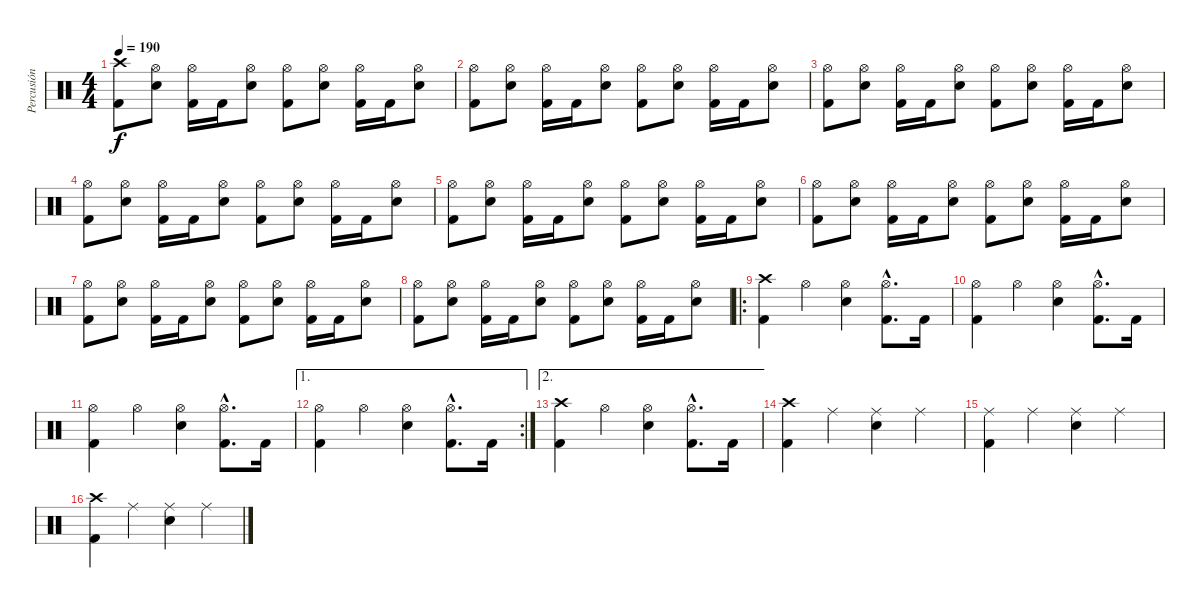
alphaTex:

\track ("Percusión" "Percusión") {instrument percussion}
\staff {score}
\articulation defaults
\ts (4 4)
\tempo 190
\clef neutral
\ks c
("Kick (hit) 2" "Crash high (hit)").8{dy f} ("Snare (hit) 2" "Hi-Hat (open)").8 ("Kick (hit) 2" "Hi-Hat (open)").16 "Kick (hit) 2".16 ("Snare (hit) 2" "Hi-Hat (open)").8 ("Kick (hit) 2" "Hi-Hat (open)").8 ("Snare (hit) 2" "Hi-Hat (open)").8 ("Kick (hit) 2" "Hi-Hat (open)").16 "Kick (hit) 2".16 ("Snare (hit) 2" "Hi-Hat (open)").8 |
("Kick (hit) 2" "Hi-Hat (open)").8 ("Snare (hit) 2" "Hi-Hat (open)").8 ("Kick (hit) 2" "Hi-Hat (open)").16 "Kick (hit) 2".16 ("Snare (hit) 2" "Hi-Hat (open)").8 ("Kick (hit) 2" "Hi-Hat (open)").8 ("Snare (hit) 2" "Hi-Hat (open)").8 ("Kick (hit) 2" "Hi-Hat (open)").16 "Kick (hit) 2".16 ("Snare (hit) 2" "Hi-Hat (open)").8 |
("Kick (hit) 2" "Hi-Hat (open)").8 ("Snare (hit) 2" "Hi-Hat (open)").8 ("Kick (hit) 2" "Hi-Hat (open)").16 "Kick (hit) 2".16 ("Snare (hit) 2" "Hi-Hat (open)").8 ("Kick (hit) 2" "Hi-Hat (open)").8 ("Snare (hit) 2" "Hi-Hat (open)").8 ("Kick (hit) 2" "Hi-Hat (open)").16 "Kick (hit) 2".16 ("Snare (hit) 2" "Hi-Hat (open)").8 |
("Kick (hit) 2" "Hi-Hat (open)").8 ("Snare (hit) 2" "Hi-Hat (open)").8 ("Kick (hit) 2" "Hi-Hat (open)").16 "Kick (hit) 2".16 ("Snare (hit) 2" "Hi-Hat (open)").8 ("Kick (hit) 2" "Hi-Hat (open)").8 ("Snare (hit) 2" "Hi-Hat (open)").8 ("Kick (hit) 2" "Hi-Hat (open)").16 "Kick (hit) 2".16 ("Snare (hit) 2" "Hi-Hat (open)").8 |
("Kick (hit) 2" "Hi-Hat (open)").8 ("Snare (hit) 2" "Hi-Hat (open)").8 ("Kick (hit) 2" "Hi-Hat (open)").16 "Kick (hit) 2".16 ("Snare (hit) 2" "Hi-Hat (open)").8 ("Kick (hit) 2" "Hi-Hat (open)").8 ("Snare (hit) 2" "Hi-Hat (open)").8 ("Kick (hit) 2" "Hi-Hat (open)").16 "Kick (hit) 2".16 ("Snare (hit) 2" "Hi-Hat (open)").8 |
("Kick (hit) 2" "Hi-Hat (open)").8 ("Snare (hit) 2" "Hi-Hat (open)").8 ("Kick (hit) 2" "Hi-Hat (open)").16 "Kick (hit) 2".16 ("Snare (hit) 2" "Hi-Hat (open)").8 ("Kick (hit) 2" "Hi-Hat (open)").8 ("Snare (hit) 2" "Hi-Hat (open)").8 ("Kick (hit) 2" "Hi-Hat (open)").16 "Kick (hit) 2".16 ("Snare (hit) 2" "Hi-Hat (open)").8 |
("Kick (hit) 2" "Hi-Hat (open)").8 ("Snare (hit) 2" "Hi-Hat (open)").8 ("Kick (hit) 2" "Hi-Hat (open)").16 "Kick (hit) 2".16 ("Snare (hit) 2" "Hi-Hat (open)").8 ("Kick (hit) 2" "Hi-Hat (open)").8 ("Snare (hit) 2" "Hi-Hat (open)").8 ("Kick (hit) 2" "Hi-Hat (open)").16 "Kick (hit) 2".16 ("Snare (hit) 2" "Hi-Hat (open)").8 |
("Kick (hit) 2" "Hi-Hat (open)").8 ("Snare (hit) 2" "Hi-Hat (open)").8 ("Kick (hit) 2" "Hi-Hat (open)").16 "Kick (hit) 2".16 ("Snare (hit) 2" "Hi-Hat (open)").8 ("Kick (hit) 2" "Hi-Hat (open)").8 ("Snare (hit) 2" "Hi-Hat (open)").8 ("Kick (hit) 2" "Hi-Hat (open)").16 "Kick (hit) 2".16 ("Snare (hit) 2" "Hi-Hat (open)").8 |
\ro
("Kick (hit) 2" "Crash high (hit)").4 "Hi-Hat (open)".4 ("Snare (hit) 2" "Hi-Hat (open)").4 ("Kick (hit) 2"{hac} "Hi-Hat (open)"{hac}).8{d} "Kick (hit) 2".16 |
("Kick (hit) 2" "Hi-Hat (open)").4 "Hi-Hat (open)".4 ("Snare (hit) 2" "Hi-Hat (open)").4 ("Kick (hit) 2"{hac} "Hi-Hat (open)"{hac}).8{d} "Kick (hit) 2".16 |
("Kick (hit) 2" "Hi-Hat (open)").4 "Hi-Hat (open)".4 ("Snare (hit) 2" "Hi-Hat (open)").4 ("Kick (hit) 2"{hac} "Hi-Hat (open)"{hac}).8{d} "Kick (hit) 2".16 |
\ae 1
\rc 2
("Kick (hit) 2" "Hi-Hat (open)").4 "Hi-Hat (open)".4 ("Snare (hit) 2" "Hi-Hat (open)").4 ("Kick (hit) 2"{hac} "Hi-Hat (open)"{hac}).8{d} "Kick (hit) 2".16 |
\ae 2
("Kick (hit) 2" "Crash high (hit)").4 "Hi-Hat (open)".4 ("Snare (hit) 2" "Hi-Hat (open)").4 ("Kick (hit) 2"{hac} "Hi-Hat (open)"{hac}).8{d} "Kick (hit) 2".16 |
("Kick (hit) 2" "Crash high (hit)").4 "Ride (middle)".4 ("Snare (hit) 2" "Ride (middle)").4 "Ride (middle)".4 |
("Kick (hit) 2" "Ride (middle)").4 "Ride (middle)".4 ("Snare (hit) 2" "Ride (middle)").4 "Ride (middle)".4 |
("Kick (hit) 2" "Crash high (hit)").4 "Ride (middle)".4 ("Snare (hit) 2" "Ride (middle)").4 "Ride (middle)".4
